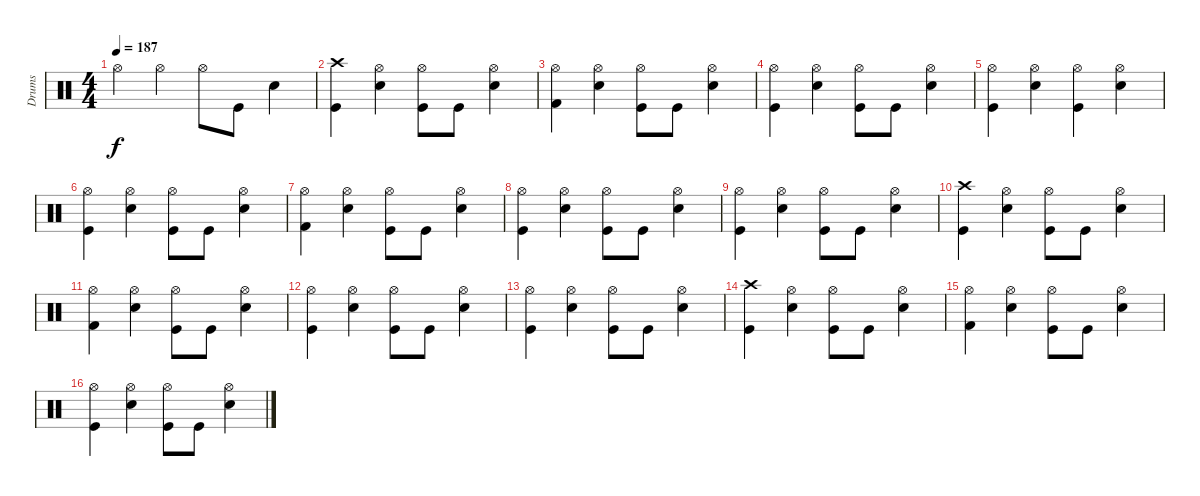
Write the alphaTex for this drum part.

\track ("Drums" "Drums") {instrument percussion}
\staff {score}
\articulation defaults
\ts (4 4)
\tempo 187
\clef neutral
\ks c "Hi-Hat (open)".4{dy f} "Hi-Hat (open)".4 "Hi-Hat (open)".8 "Kick (hit)".8 "Snare (hit) 2".4
|
("Crash high (hit)" "Kick (hit)").4 ("Hi-Hat (open)" "Snare (hit) 2").4 ("Hi-Hat (open)" "Kick (hit)").8 "Kick (hit)".8 ("Hi-Hat (open)" "Snare (hit) 2").4 |
("Hi-Hat (open)" "Kick (hit) 2").4 ("Hi-Hat (open)" "Snare (hit) 2").4 ("Hi-Hat (open)" "Kick (hit)").8 "Kick (hit)".8 ("Hi-Hat (open)" "Snare (hit) 2").4 |
("Hi-Hat (open)" "Kick (hit)").4 ("Hi-Hat (open)" "Snare (hit) 2").4 ("Hi-Hat (open)" "Kick (hit)").8 "Kick (hit)".8 ("Hi-Hat (open)" "Snare (hit) 2").4 |
("Hi-Hat (open)" "Kick (hit)").4 ("Hi-Hat (open)" "Snare (hit) 2").4 ("Hi-Hat (open)" "Kick (hit)").4 ("Hi-Hat (open)" "Snare (hit) 2").4 |
("Hi-Hat (open)" "Kick (hit)").4 ("Hi-Hat (open)" "Snare (hit) 2").4 ("Hi-Hat (open)" "Kick (hit)").8 "Kick (hit)".8 ("Hi-Hat (open)" "Snare (hit) 2").4 |
("Hi-Hat (open)" "Kick (hit) 2").4 ("Hi-Hat (open)" "Snare (hit) 2").4 ("Hi-Hat (open)" "Kick (hit)").8 "Kick (hit)".8 ("Hi-Hat (open)" "Snare (hit) 2").4 |
("Hi-Hat (open)" "Kick (hit)").4 ("Hi-Hat (open)" "Snare (hit) 2").4 ("Hi-Hat (open)" "Kick (hit)").8 "Kick (hit)".8 ("Hi-Hat (open)" "Snare (hit) 2").4 |
("Hi-Hat (open)" "Kick (hit)").4 ("Hi-Hat (open)" "Snare (hit) 2").4 ("Hi-Hat (open)" "Kick (hit)").8 "Kick (hit)".8 ("Hi-Hat (open)" "Snare (hit) 2").4 |
("Crash high (hit)" "Kick (hit)").4 ("Hi-Hat (open)" "Snare (hit) 2").4 ("Hi-Hat (open)" "Kick (hit)").8 "Kick (hit)".8 ("Hi-Hat (open)" "Snare (hit) 2").4 |
("Hi-Hat (open)" "Kick (hit) 2").4 ("Hi-Hat (open)" "Snare (hit) 2").4 ("Hi-Hat (open)" "Kick (hit)").8 "Kick (hit)".8 ("Hi-Hat (open)" "Snare (hit) 2").4 |
("Hi-Hat (open)" "Kick (hit)").4 ("Hi-Hat (open)" "Snare (hit) 2").4 ("Hi-Hat (open)" "Kick (hit)").8 "Kick (hit)".8 ("Hi-Hat (open)" "Snare (hit) 2").4 |
("Hi-Hat (open)" "Kick (hit)").4 ("Hi-Hat (open)" "Snare (hit) 2").4 ("Hi-Hat (open)" "Kick (hit)").8 "Kick (hit)".8 ("Hi-Hat (open)" "Snare (hit) 2").4 |
("Crash high (hit)" "Kick (hit)").4 ("Hi-Hat (open)" "Snare (hit) 2").4 ("Hi-Hat (open)" "Kick (hit)").8 "Kick (hit)".8 ("Hi-Hat (open)" "Snare (hit) 2").4 |
("Hi-Hat (open)" "Kick (hit) 2").4 ("Hi-Hat (open)" "Snare (hit) 2").4 ("Hi-Hat (open)" "Kick (hit)").8 "Kick (hit)".8 ("Hi-Hat (open)" "Snare (hit) 2").4 |
("Hi-Hat (open)" "Kick (hit)").4 ("Hi-Hat (open)" "Snare (hit) 2").4 ("Hi-Hat (open)" "Kick (hit)").8 "Kick (hit)".8 ("Hi-Hat (open)" "Snare (hit) 2").4
